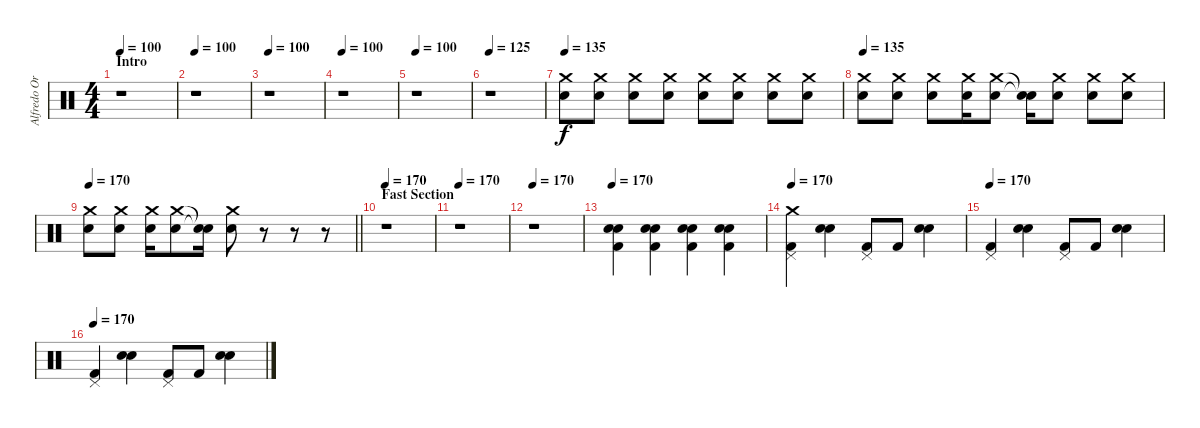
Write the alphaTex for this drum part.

\track ("Alfredo Ortiz (Drums)" "Alfredo Or") {instrument percussion}
\staff {score}
\articulation defaults
\ts (4 4)
\section ("" "Intro")
\tempo 100
\clef neutral
\ks c
r.1{dy f volume 0} |
\tempo 100
r.1 |
\tempo 100
r.1 |
\tempo 100
r.1 |
\tempo 100
r.1 |
\tempo 125
r.1{volume 0} |
\tempo 135
("Snare (hit) 2" "Crash medium (hit)").8{volume 11} ("Snare (hit) 2" "Crash medium (hit)").8 ("Snare (hit) 2" "Crash medium (hit)").8 ("Snare (hit) 2" "Crash medium (hit)").8 ("Snare (hit) 2" "Crash medium (hit)").8 ("Snare (hit) 2" "Crash medium (hit)").8 ("Snare (hit) 2" "Crash medium (hit)").8 ("Snare (hit) 2" "Crash medium (hit)").8 |
\tempo 135
("Snare (hit) 2" "Crash medium (hit)").8 ("Snare (hit) 2" "Crash medium (hit)").8 ("Snare (hit) 2" "Crash medium (hit)").8 ("Snare (hit) 2" "Crash medium (hit)").16 ("Snare (hit) 2" "Crash medium (hit)").8 ("Snare (hit)"{t} "Snare (hit)"{t}).16 ("Snare (hit) 2" "Crash medium (hit)").8 ("Snare (hit) 2" "Crash medium (hit)").8 ("Snare (hit) 2" "Crash medium (hit)").8 |
\tempo 170
\barLineRight lightlight
("Snare (hit) 2" "Crash medium (hit)").8 ("Snare (hit) 2" "Crash medium (hit)").8 ("Snare (hit) 2" "Crash medium (hit)").16 ("Snare (hit) 2" "Crash medium (hit)").8 ("Snare (hit)"{t} "Snare (hit)"{t}).16 ("Snare (hit) 2" "Crash medium (hit)").8 r.8 r.8 r.8 |
\section ("" "Fast Section")
\tempo 170
r.1 |
\tempo 170
r.1 |
\tempo 170
r.1 |
\tempo 170
("Kick (hit) 2" "Snare (hit) 2" "Electric Snare (hit)").4 ("Kick (hit) 2" "Snare (hit) 2" "Electric Snare (hit)").4 ("Kick (hit) 2" "Snare (hit) 2" "Electric Snare (hit)").4 ("Kick (hit) 2" "Snare (hit) 2" "Electric Snare (hit)").4 |
\tempo 170
("Kick (hit) 2" "Pedal Hi-Hat (hit)" "Crash medium (hit)").4 ("Snare (hit) 2" "Electric Snare (hit)").4 ("Kick (hit) 2" "Pedal Hi-Hat (hit)").8 "Kick (hit) 2".8 ("Snare (hit) 2" "Electric Snare (hit)").4 |
\tempo 170
("Kick (hit) 2" "Pedal Hi-Hat (hit)").4 ("Snare (hit) 2" "Electric Snare (hit)").4 ("Kick (hit) 2" "Pedal Hi-Hat (hit)").8 "Kick (hit) 2".8 ("Snare (hit) 2" "Electric Snare (hit)").4 |
\tempo 170
("Kick (hit) 2" "Pedal Hi-Hat (hit)").4 ("Snare (hit) 2" "Electric Snare (hit)").4 ("Kick (hit) 2" "Pedal Hi-Hat (hit)").8 "Kick (hit) 2".8 ("Snare (hit) 2" "Electric Snare (hit)").4
